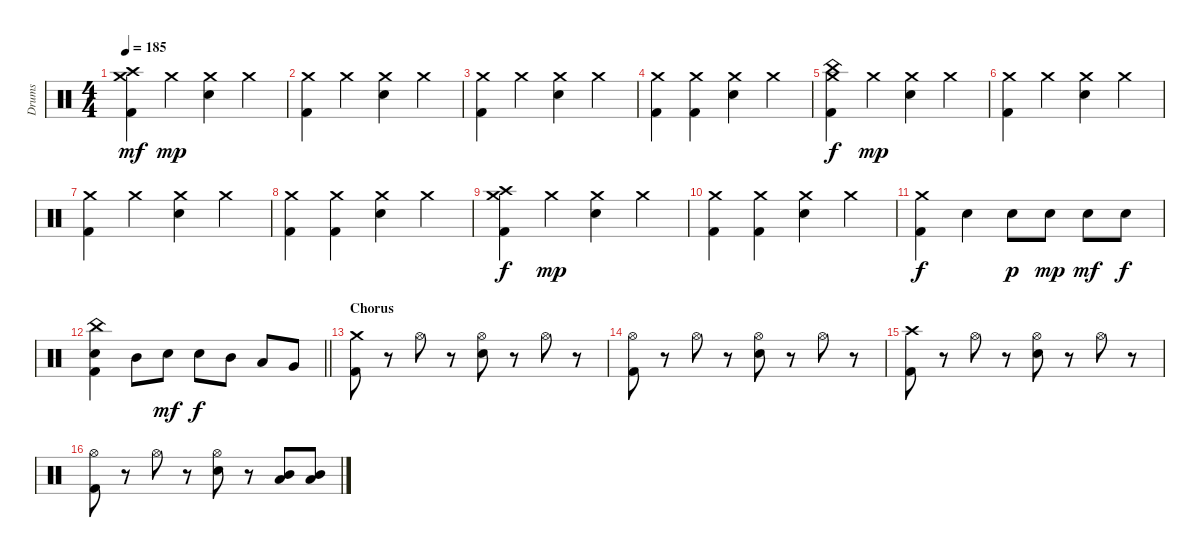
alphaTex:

\track ("Drums" "Drums") {instrument percussion}
\staff {score}
\articulation defaults
\ts (4 4)
\tempo 185
\clef neutral
\ks c
("Crash medium (hit)" "Crash high (hit)" "Kick (hit) 2").4{dy mf} "Crash medium (hit)".4{dy mp} ("Crash medium (hit)" "Electric Snare (hit)").4 "Crash medium (hit)".4 |
("Crash medium (hit)" "Kick (hit) 2").4 "Crash medium (hit)".4 ("Crash medium (hit)" "Electric Snare (hit)").4 "Crash medium (hit)".4 |
("Crash medium (hit)" "Kick (hit) 2").4 "Crash medium (hit)".4 ("Crash medium (hit)" "Electric Snare (hit)").4 "Crash medium (hit)".4 |
("Crash medium (hit)" "Kick (hit) 2").4 ("Crash medium (hit)" "Kick (hit) 2").4 ("Crash medium (hit)" "Electric Snare (hit)").4 "Crash medium (hit)".4 |
("Crash medium (hit)" "China (hit)" "Kick (hit) 2").4{dy f} "Crash medium (hit)".4{dy mp} ("Crash medium (hit)" "Electric Snare (hit)").4 "Crash medium (hit)".4 |
("Crash medium (hit)" "Kick (hit) 2").4 "Crash medium (hit)".4 ("Crash medium (hit)" "Electric Snare (hit)").4 "Crash medium (hit)".4 |
("Crash medium (hit)" "Kick (hit) 2").4 "Crash medium (hit)".4 ("Crash medium (hit)" "Electric Snare (hit)").4 "Crash medium (hit)".4 |
("Crash medium (hit)" "Kick (hit) 2").4 ("Crash medium (hit)" "Kick (hit) 2").4 ("Crash medium (hit)" "Electric Snare (hit)").4 "Crash medium (hit)".4 |
("Crash medium (hit)" "Crash high (hit)" "Kick (hit) 2").4{dy f} "Crash medium (hit)".4{dy mp} ("Crash medium (hit)" "Electric Snare (hit)").4 "Crash medium (hit)".4 |
("Crash medium (hit)" "Kick (hit) 2").4 ("Crash medium (hit)" "Kick (hit) 2").4 ("Crash medium (hit)" "Electric Snare (hit)").4 "Crash medium (hit)".4 |
("Crash medium (hit)" "Kick (hit) 2").4{dy f} "Electric Snare (hit)".4 "Electric Snare (hit)".8{dy p} "Electric Snare (hit)".8{dy mp} "Electric Snare (hit)".8{dy mf} "Electric Snare (hit)".8{dy f} |
\barLineRight lightlight
("China (hit)" "Electric Snare (hit)" "Kick (hit) 2").4 "Mid Tom (hit)".8 "Electric Snare (hit)".8{dy mf} "Electric Snare (hit)".8{dy f} "Mid Tom (hit)".8 "Low Tom (hit)".8 "Very Low Tom (hit)".8 |
\section ("" "Chorus")
("Crash medium (hit)" "Kick (hit) 2").8 r.8 "Hi-Hat (open)".8 r.8 ("Hi-Hat (open)" "Electric Snare (hit)").8 r.8 "Hi-Hat (open)".8 r.8 |
("Hi-Hat (open)" "Kick (hit) 2").8 r.8 "Hi-Hat (open)".8 r.8 ("Hi-Hat (open)" "Electric Snare (hit)").8 r.8 "Hi-Hat (open)".8 r.8 |
("Crash high (hit)" "Kick (hit) 2").8 r.8 "Hi-Hat (open)".8 r.8 ("Hi-Hat (open)" "Electric Snare (hit)").8 r.8 "Hi-Hat (open)".8 r.8 |
("Hi-Hat (open)" "Kick (hit) 2").8 r.8 "Hi-Hat (open)".8 r.8 ("Hi-Hat (open)" "Electric Snare (hit)").8 r.8 ("Mid Tom (hit)" "Low Tom (hit)").8 ("Mid Tom (hit)" "Low Tom (hit)").8
